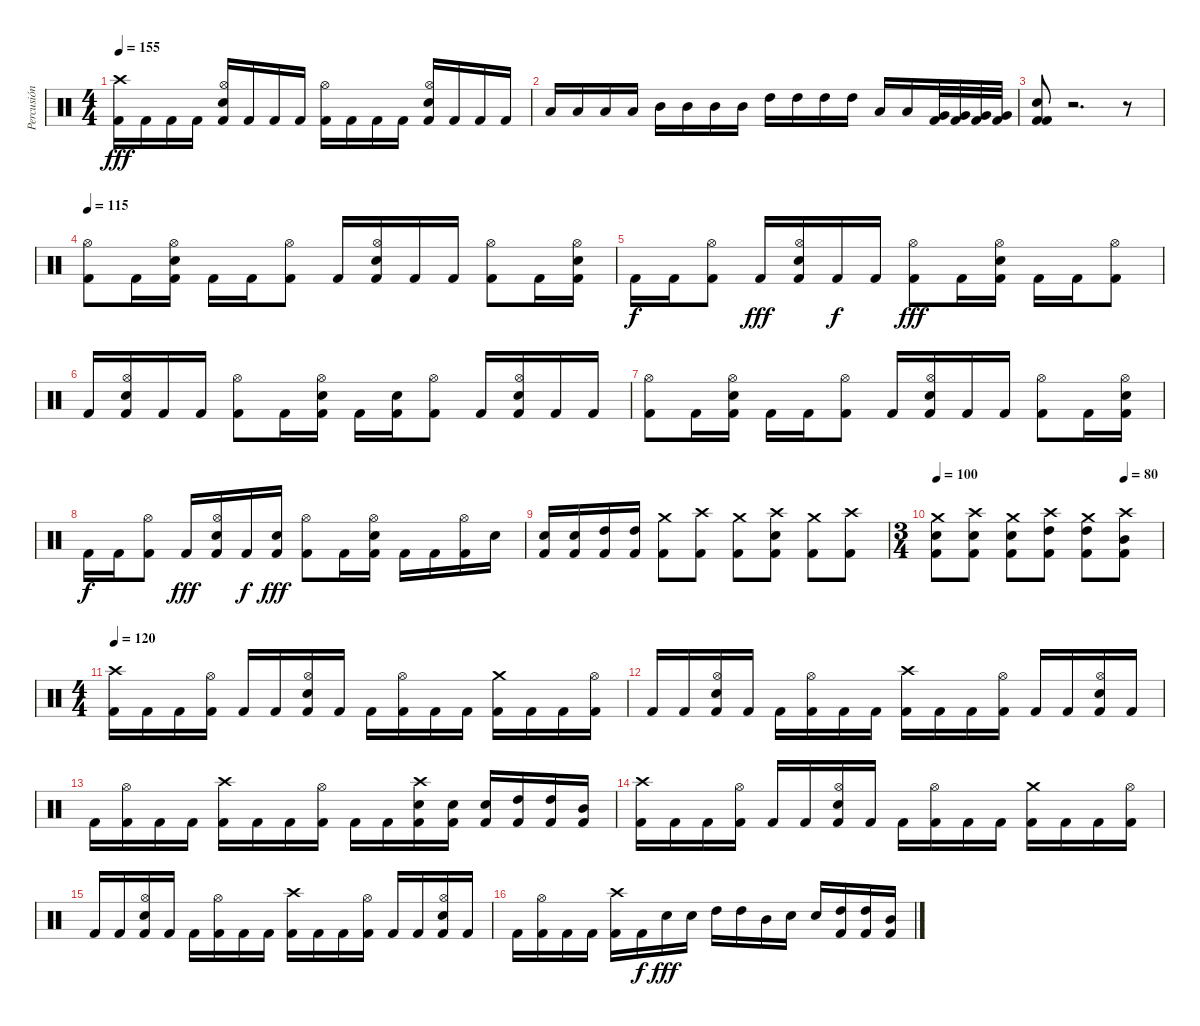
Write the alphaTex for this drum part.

\track ("Percusión" "Percusión") {instrument percussion}
\staff {score}
\articulation defaults
\ts (4 4)
\tempo 155
\clef neutral
\ks c
("Crash high (hit)" "Kick (hit) 2").16{dy fff} "Kick (hit) 2".16 "Kick (hit) 2".16 "Kick (hit) 2".16 ("Hi-Hat (open)" "Electric Snare (hit)" "Kick (hit) 2").16 "Kick (hit) 2".16 "Kick (hit) 2".16 "Kick (hit) 2".16 ("Hi-Hat (open)" "Kick (hit) 2").16 "Kick (hit) 2".16 "Kick (hit) 2".16 "Kick (hit) 2".16 ("Hi-Hat (open)" "Electric Snare (hit)" "Kick (hit) 2").16 "Kick (hit) 2".16 "Kick (hit) 2".16 "Kick (hit) 2".16 |
"Low Tom (hit)".16 "Low Tom (hit)".16 "Low Tom (hit)".16 "Low Tom (hit)".16 "Mid Tom (hit)".16 "Mid Tom (hit)".16 "Mid Tom (hit)".16 "Mid Tom (hit)".16 "High Tom (hit)".16 "High Tom (hit)".16 "High Tom (hit)".16 "High Tom (hit)".16 "Low Tom (hit)".16 "Low Tom (hit)".16 ("Very Low Tom (hit)" "Kick (hit) 2").32 ("Very Low Tom (hit)" "Kick (hit) 2").32 ("Very Low Tom (hit)" "Kick (hit) 2").32 ("Very Low Tom (hit)" "Kick (hit) 2").32 |
("Electric Snare (hit)" "Kick (hit) 2" "Kick (hit) 2").8 r.2{d} r.8 |
\tempo 115
("Hi-Hat (open)" "Kick (hit) 2").8 "Kick (hit) 2".16 ("Hi-Hat (open)" "Electric Snare (hit)" "Kick (hit) 2").16 "Kick (hit) 2".16 "Kick (hit) 2".16 ("Hi-Hat (open)" "Kick (hit) 2").8 "Kick (hit) 2".16 ("Hi-Hat (open)" "Electric Snare (hit)" "Kick (hit) 2").16 "Kick (hit) 2".16 "Kick (hit) 2".16 ("Hi-Hat (open)" "Kick (hit) 2").8 "Kick (hit) 2".16 ("Hi-Hat (open)" "Electric Snare (hit)" "Kick (hit) 2").16 |
"Kick (hit) 2".16{dy f} "Kick (hit) 2".16 ("Hi-Hat (open)" "Kick (hit) 2").8 "Kick (hit) 2".16{dy fff} ("Hi-Hat (open)" "Electric Snare (hit)" "Kick (hit) 2").16 "Kick (hit) 2".16{dy f} "Kick (hit) 2".16 ("Hi-Hat (open)" "Kick (hit) 2").8{dy fff} "Kick (hit) 2".16 ("Hi-Hat (open)" "Electric Snare (hit)" "Kick (hit) 2").16 "Kick (hit) 2".16 "Kick (hit) 2".16 ("Hi-Hat (open)" "Kick (hit) 2").8 |
"Kick (hit) 2".16 ("Hi-Hat (open)" "Electric Snare (hit)" "Kick (hit) 2").16 "Kick (hit) 2".16 "Kick (hit) 2".16 ("Hi-Hat (open)" "Kick (hit) 2").8 "Kick (hit) 2".16 ("Hi-Hat (open)" "Electric Snare (hit)" "Kick (hit) 2").16 "Kick (hit) 2".16 ("Electric Snare (hit)" "Kick (hit) 2").16 ("Hi-Hat (open)" "Kick (hit) 2").8 "Kick (hit) 2".16 ("Hi-Hat (open)" "Electric Snare (hit)" "Kick (hit) 2").16 "Kick (hit) 2".16 "Kick (hit) 2".16 |
("Hi-Hat (open)" "Kick (hit) 2").8 "Kick (hit) 2".16 ("Hi-Hat (open)" "Electric Snare (hit)" "Kick (hit) 2").16 "Kick (hit) 2".16 "Kick (hit) 2".16 ("Hi-Hat (open)" "Kick (hit) 2").8 "Kick (hit) 2".16 ("Hi-Hat (open)" "Electric Snare (hit)" "Kick (hit) 2").16 "Kick (hit) 2".16 "Kick (hit) 2".16 ("Hi-Hat (open)" "Kick (hit) 2").8 "Kick (hit) 2".16 ("Hi-Hat (open)" "Electric Snare (hit)" "Kick (hit) 2").16 |
"Kick (hit) 2".16{dy f} "Kick (hit) 2".16 ("Hi-Hat (open)" "Kick (hit) 2").8 "Kick (hit) 2".16{dy fff} ("Hi-Hat (open)" "Electric Snare (hit)" "Kick (hit) 2").16 "Kick (hit) 2".16{dy f} ("Electric Snare (hit)" "Kick (hit) 2").16{dy fff} ("Hi-Hat (open)" "Kick (hit) 2").8 "Kick (hit) 2".16 ("Hi-Hat (open)" "Electric Snare (hit)" "Kick (hit) 2").16 "Kick (hit) 2".16 "Kick (hit) 2".16 ("Hi-Hat (open)" "Kick (hit) 2").16 "Electric Snare (hit)".16 |
("Electric Snare (hit)" "Kick (hit) 2").16 ("Electric Snare (hit)" "Kick (hit) 2").16 ("High Tom (hit)" "Kick (hit) 2").16 ("High Tom (hit)" "Kick (hit) 2").16 ("Crash medium (hit)" "Kick (hit) 2").8 ("Crash high (hit)" "Kick (hit) 2").8 ("Crash medium (hit)" "Kick (hit) 2").8 ("Crash high (hit)" "Electric Snare (hit)" "Kick (hit) 2").8 ("Crash medium (hit)" "Kick (hit) 2").8 ("Crash high (hit)" "Kick (hit) 2").8 |
\ts (3 4)
\tempo 100
\tempo (80 0.8333333333333334)
("Crash medium (hit)" "Electric Snare (hit)" "Kick (hit) 2").8 ("Crash high (hit)" "Electric Snare (hit)" "Kick (hit) 2").8 ("Crash medium (hit)" "Electric Snare (hit)" "Kick (hit) 2").8 ("Crash high (hit)" "High Tom (hit)" "Kick (hit) 2").8 ("Crash medium (hit)" "High Tom (hit)" "Kick (hit) 2").8 ("Crash high (hit)" "Mid Tom (hit)" "Kick (hit) 2").8 |
\ts (4 4)
\tempo 120
("Crash high (hit)" "Kick (hit) 2").16 "Kick (hit) 2".16 "Kick (hit) 2".16 ("Hi-Hat (open)" "Kick (hit) 2").16 "Kick (hit) 2".16 "Kick (hit) 2".16 ("Hi-Hat (open)" "Electric Snare (hit)" "Kick (hit) 2").16 "Kick (hit) 2".16 "Kick (hit) 2".16 ("Hi-Hat (open)" "Kick (hit) 2").16 "Kick (hit) 2".16 "Kick (hit) 2".16 ("Crash medium (hit)" "Kick (hit) 2").16 "Kick (hit) 2".16 "Kick (hit) 2".16 ("Hi-Hat (open)" "Kick (hit) 2").16 |
"Kick (hit) 2".16 "Kick (hit) 2".16 ("Hi-Hat (open)" "Electric Snare (hit)" "Kick (hit) 2").16 "Kick (hit) 2".16 "Kick (hit) 2".16 ("Hi-Hat (open)" "Kick (hit) 2").16 "Kick (hit) 2".16 "Kick (hit) 2".16 ("Crash high (hit)" "Kick (hit) 2").16 "Kick (hit) 2".16 "Kick (hit) 2".16 ("Hi-Hat (open)" "Kick (hit) 2").16 "Kick (hit) 2".16 "Kick (hit) 2".16 ("Hi-Hat (open)" "Electric Snare (hit)" "Kick (hit) 2").16 "Kick (hit) 2".16 |
"Kick (hit) 2".16 ("Hi-Hat (open)" "Kick (hit) 2").16 "Kick (hit) 2".16 "Kick (hit) 2".16 ("Crash high (hit)" "Kick (hit) 2").16 "Kick (hit) 2".16 "Kick (hit) 2".16 ("Hi-Hat (open)" "Kick (hit) 2").16 "Kick (hit) 2".16 "Kick (hit) 2".16 ("Crash high (hit)" "Electric Snare (hit)" "Kick (hit) 2").16 ("Electric Snare (hit)" "Kick (hit) 2").16 ("Electric Snare (hit)" "Kick (hit) 2").16 ("High Tom (hit)" "Kick (hit) 2").16 ("High Tom (hit)" "Kick (hit) 2").16 ("Mid Tom (hit)" "Kick (hit) 2").16 |
("Crash high (hit)" "Kick (hit) 2").16 "Kick (hit) 2".16 "Kick (hit) 2".16 ("Hi-Hat (open)" "Kick (hit) 2").16 "Kick (hit) 2".16 "Kick (hit) 2".16 ("Hi-Hat (open)" "Electric Snare (hit)" "Kick (hit) 2").16 "Kick (hit) 2".16 "Kick (hit) 2".16 ("Hi-Hat (open)" "Kick (hit) 2").16 "Kick (hit) 2".16 "Kick (hit) 2".16 ("Crash medium (hit)" "Kick (hit) 2").16 "Kick (hit) 2".16 "Kick (hit) 2".16 ("Hi-Hat (open)" "Kick (hit) 2").16 |
"Kick (hit) 2".16 "Kick (hit) 2".16 ("Hi-Hat (open)" "Electric Snare (hit)" "Kick (hit) 2").16 "Kick (hit) 2".16 "Kick (hit) 2".16 ("Hi-Hat (open)" "Kick (hit) 2").16 "Kick (hit) 2".16 "Kick (hit) 2".16 ("Crash high (hit)" "Kick (hit) 2").16 "Kick (hit) 2".16 "Kick (hit) 2".16 ("Hi-Hat (open)" "Kick (hit) 2").16 "Kick (hit) 2".16 "Kick (hit) 2".16 ("Hi-Hat (open)" "Electric Snare (hit)" "Kick (hit) 2").16 "Kick (hit) 2".16 |
"Kick (hit) 2".16 ("Hi-Hat (open)" "Kick (hit) 2").16 "Kick (hit) 2".16 "Kick (hit) 2".16 ("Crash high (hit)" "Kick (hit) 2").16 "Kick (hit) 2".16{dy f} "Electric Snare (hit)".16{dy fff} "Electric Snare (hit)".16 "High Tom (hit)".16 "High Tom (hit)".16 "Mid Tom (hit)".16 "Electric Snare (hit)".16 "Electric Snare (hit)".16 ("High Tom (hit)" "Kick (hit) 2").16 ("High Tom (hit)" "Kick (hit) 2").16 ("Mid Tom (hit)" "Kick (hit) 2").16
